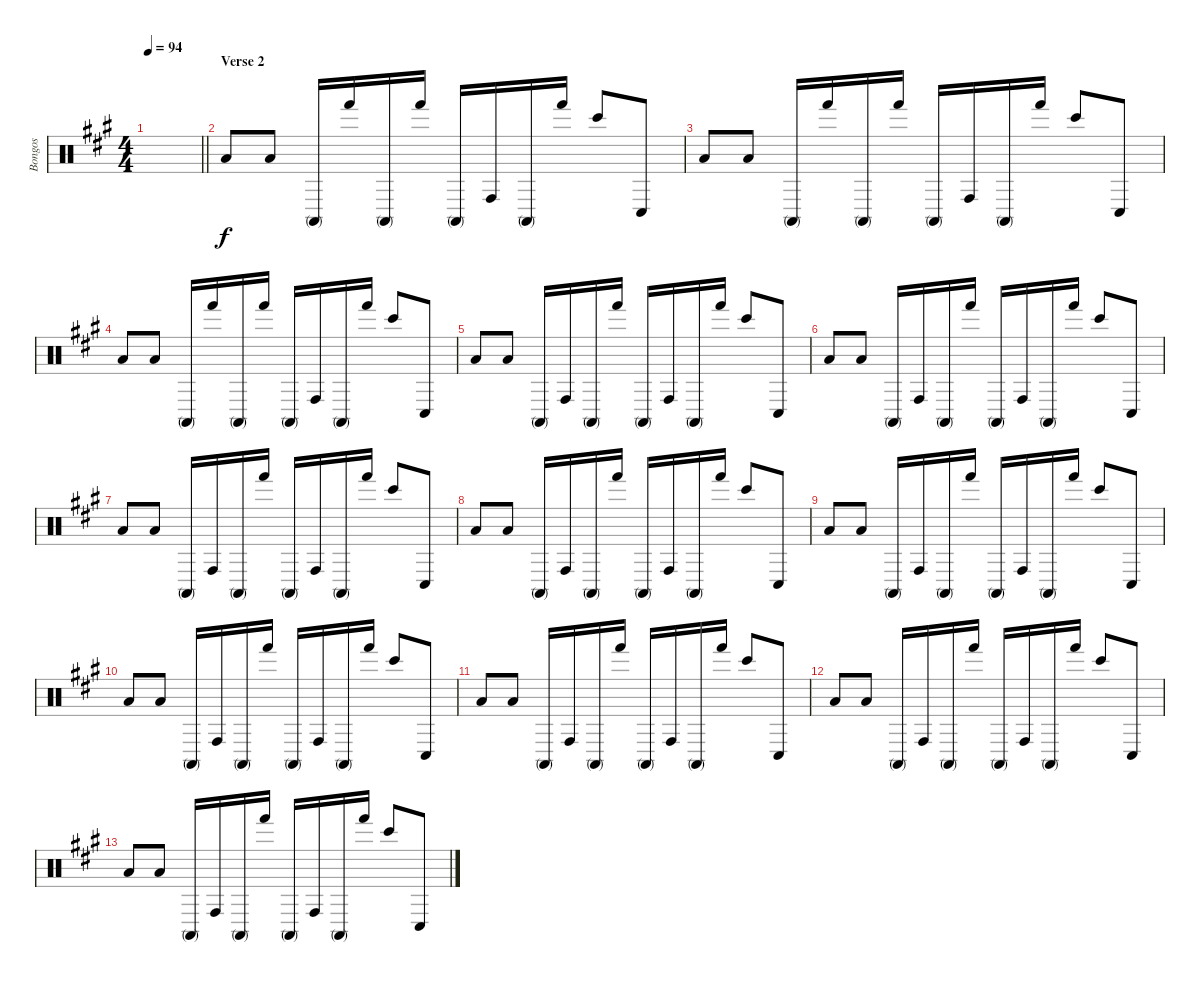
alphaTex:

\track ("Bongos" "Bongos") {instrument percussion}
\staff {score}
\articulation defaults
\ts (4 4)
\tempo 94
\clef neutral
\barLineRight lightlight
\ks a
|
\section ("" "Verse 2")
"Low Floor Tom (hit)".8{volume 10} "Low Floor Tom (hit)".8 "Conga high (mute)".16 "Hand (hit)".16 "Conga high (mute)".16 "Hand (hit)".16 "Conga high (mute)".16 "Conga high (hit)".16 "Conga high (mute)".16 "Hand (hit)".16 "Bongo High (hit)".8 "Conga low (hit)".8 |
"Low Floor Tom (hit)".8 "Low Floor Tom (hit)".8 "Conga high (mute)".16 "Hand (hit)".16 "Conga high (mute)".16 "Hand (hit)".16 "Conga high (mute)".16 "Conga high (hit)".16 "Conga high (mute)".16 "Hand (hit)".16 "Bongo High (hit)".8 "Conga low (hit)".8 |
"Low Floor Tom (hit)".8 "Low Floor Tom (hit)".8 "Conga high (mute)".16 "Hand (hit)".16 "Conga high (mute)".16 "Hand (hit)".16 "Conga high (mute)".16 "Conga high (hit)".16 "Conga high (mute)".16 "Hand (hit)".16 "Bongo High (hit)".8 "Conga low (hit)".8 |
"Low Floor Tom (hit)".8 "Low Floor Tom (hit)".8 "Conga high (mute)".16 "Conga high (hit)".16 "Conga high (mute)".16 "Hand (hit)".16 "Conga high (mute)".16 "Conga high (hit)".16 "Conga high (mute)".16 "Hand (hit)".16 "Bongo High (hit)".8 "Conga low (hit)".8 |
"Low Floor Tom (hit)".8 "Low Floor Tom (hit)".8 "Conga high (mute)".16 "Conga high (hit)".16 "Conga high (mute)".16 "Hand (hit)".16 "Conga high (mute)".16 "Conga high (hit)".16 "Conga high (mute)".16 "Hand (hit)".16 "Bongo High (hit)".8 "Conga low (hit)".8 |
"Low Floor Tom (hit)".8 "Low Floor Tom (hit)".8 "Conga high (mute)".16 "Conga high (hit)".16 "Conga high (mute)".16 "Hand (hit)".16 "Conga high (mute)".16 "Conga high (hit)".16 "Conga high (mute)".16 "Hand (hit)".16 "Bongo High (hit)".8 "Conga low (hit)".8 |
"Low Floor Tom (hit)".8 "Low Floor Tom (hit)".8 "Conga high (mute)".16 "Conga high (hit)".16 "Conga high (mute)".16 "Hand (hit)".16 "Conga high (mute)".16 "Conga high (hit)".16 "Conga high (mute)".16 "Hand (hit)".16 "Bongo High (hit)".8 "Conga low (hit)".8 |
"Low Floor Tom (hit)".8 "Low Floor Tom (hit)".8 "Conga high (mute)".16 "Conga high (hit)".16 "Conga high (mute)".16 "Hand (hit)".16 "Conga high (mute)".16 "Conga high (hit)".16 "Conga high (mute)".16 "Hand (hit)".16 "Bongo High (hit)".8 "Conga low (hit)".8 |
"Low Floor Tom (hit)".8 "Low Floor Tom (hit)".8 "Conga high (mute)".16 "Conga high (hit)".16 "Conga high (mute)".16 "Hand (hit)".16 "Conga high (mute)".16 "Conga high (hit)".16 "Conga high (mute)".16 "Hand (hit)".16 "Bongo High (hit)".8 "Conga low (hit)".8 |
"Low Floor Tom (hit)".8 "Low Floor Tom (hit)".8 "Conga high (mute)".16 "Conga high (hit)".16 "Conga high (mute)".16 "Hand (hit)".16 "Conga high (mute)".16 "Conga high (hit)".16 "Conga high (mute)".16 "Hand (hit)".16 "Bongo High (hit)".8 "Conga low (hit)".8 |
"Low Floor Tom (hit)".8 "Low Floor Tom (hit)".8 "Conga high (mute)".16 "Conga high (hit)".16 "Conga high (mute)".16 "Hand (hit)".16 "Conga high (mute)".16 "Conga high (hit)".16 "Conga high (mute)".16 "Hand (hit)".16 "Bongo High (hit)".8 "Conga low (hit)".8 |
"Low Floor Tom (hit)".8 "Low Floor Tom (hit)".8 "Conga high (mute)".16 "Conga high (hit)".16 "Conga high (mute)".16 "Hand (hit)".16 "Conga high (mute)".16 "Conga high (hit)".16 "Conga high (mute)".16 "Hand (hit)".16 "Bongo High (hit)".8 "Conga low (hit)".8
